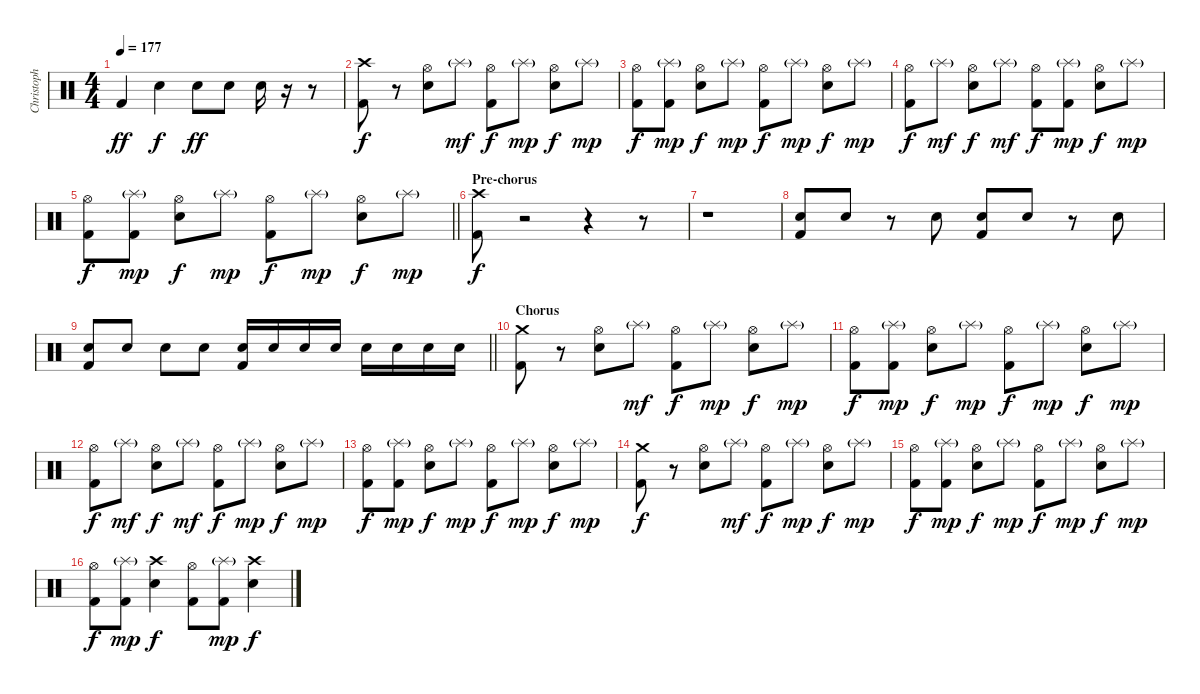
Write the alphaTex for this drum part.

\track ("Christoph Schneider [drums]" "Christoph ") {instrument percussion}
\staff {score}
\articulation defaults
\ts (4 4)
\tempo 177
\clef neutral
\ks c "Kick (hit) 2".4{dy ff} "Snare (hit) 2".4{dy f} "Snare (hit) 2".8{dy ff} "Snare (hit) 2".8 "Snare (hit) 2".16
r.16 r.8 |
("Crash high (hit)" "Kick (hit) 2").8{dy f} r.8 ("Hi-Hat (open)" "Snare (hit) 2").8 "Splash (hit)"{g}.8{dy mf} ("Hi-Hat (open)" "Kick (hit) 2").8{dy f} "Splash (hit)"{g}.8{dy mp} ("Hi-Hat (open)" "Snare (hit) 2").8{dy f} "Splash (hit)"{g}.8{dy mp} |
("Hi-Hat (open)" "Kick (hit) 2").8{dy f} ("Splash (hit)"{g} "Kick (hit) 2").8{dy mp} ("Hi-Hat (open)" "Snare (hit) 2").8{dy f} "Splash (hit)"{g}.8{dy mp} ("Hi-Hat (open)" "Kick (hit) 2").8{dy f} "Splash (hit)"{g}.8{dy mp} ("Hi-Hat (open)" "Snare (hit) 2").8{dy f} "Splash (hit)"{g}.8{dy mp} |
("Hi-Hat (open)" "Kick (hit) 2").8{dy f} "Splash (hit)"{g}.8{dy mf} ("Hi-Hat (open)" "Snare (hit) 2").8{dy f} "Splash (hit)"{g}.8{dy mf} ("Hi-Hat (open)" "Kick (hit) 2").8{dy f} ("Splash (hit)"{g} "Kick (hit) 2").8{dy mp} ("Hi-Hat (open)" "Snare (hit) 2").8{dy f} "Splash (hit)"{g}.8{dy mp} |
\barLineRight lightlight
("Hi-Hat (open)" "Kick (hit) 2").8{dy f} ("Splash (hit)"{g} "Kick (hit) 2").8{dy mp} ("Hi-Hat (open)" "Snare (hit) 2").8{dy f} "Splash (hit)"{g}.8{dy mp} ("Hi-Hat (open)" "Kick (hit) 2").8{dy f} "Splash (hit)"{g}.8{dy mp} ("Hi-Hat (open)" "Snare (hit) 2").8{dy f} "Splash (hit)"{g}.8{dy mp} |
\section ("" "Pre-chorus")
("Crash high (hit)" "Kick (hit) 2").8{dy f} r.2 r.4 r.8 |
r.1 |
("Snare (hit) 2" "Kick (hit) 2").8 "Snare (hit) 2".8 r.8 "Snare (hit) 2".8 ("Snare (hit) 2" "Kick (hit) 2").8 "Snare (hit) 2".8 r.8 "Snare (hit) 2".8 |
\barLineRight lightlight
("Snare (hit) 2" "Kick (hit) 2").8 "Snare (hit) 2".8 "Snare (hit) 2".8 "Snare (hit) 2".8 ("Snare (hit) 2" "Kick (hit) 2").16 "Snare (hit) 2".16 "Snare (hit) 2".16 "Snare (hit) 2".16 "Snare (hit) 2".16 "Snare (hit) 2".16 "Snare (hit) 2".16 "Snare (hit) 2".16 |
\section ("" "Chorus")
("Crash medium (hit)" "Kick (hit) 2").8 r.8 ("Hi-Hat (open)" "Snare (hit) 2").8 "Splash (hit)"{g}.8{dy mf} ("Hi-Hat (open)" "Kick (hit) 2").8{dy f} "Splash (hit)"{g}.8{dy mp} ("Hi-Hat (open)" "Snare (hit) 2").8{dy f} "Splash (hit)"{g}.8{dy mp} |
("Hi-Hat (open)" "Kick (hit) 2").8{dy f} ("Splash (hit)"{g} "Kick (hit) 2").8{dy mp} ("Hi-Hat (open)" "Snare (hit) 2").8{dy f} "Splash (hit)"{g}.8{dy mp} ("Hi-Hat (open)" "Kick (hit) 2").8{dy f} "Splash (hit)"{g}.8{dy mp} ("Hi-Hat (open)" "Snare (hit) 2").8{dy f} "Splash (hit)"{g}.8{dy mp} |
("Hi-Hat (open)" "Kick (hit) 2").8{dy f} "Splash (hit)"{g}.8{dy mf} ("Hi-Hat (open)" "Snare (hit) 2").8{dy f} "Splash (hit)"{g}.8{dy mf} ("Hi-Hat (open)" "Kick (hit) 2").8{dy f} "Splash (hit)"{g}.8{dy mp} ("Hi-Hat (open)" "Snare (hit) 2").8{dy f} "Splash (hit)"{g}.8{dy mp} |
("Hi-Hat (open)" "Kick (hit) 2").8{dy f} ("Splash (hit)"{g} "Kick (hit) 2").8{dy mp} ("Hi-Hat (open)" "Snare (hit) 2").8{dy f} "Splash (hit)"{g}.8{dy mp} ("Hi-Hat (open)" "Kick (hit) 2").8{dy f} "Splash (hit)"{g}.8{dy mp} ("Hi-Hat (open)" "Snare (hit) 2").8{dy f} "Splash (hit)"{g}.8{dy mp} |
("Crash medium (hit)" "Kick (hit) 2").8{dy f} r.8 ("Hi-Hat (open)" "Snare (hit) 2").8 "Splash (hit)"{g}.8{dy mf} ("Hi-Hat (open)" "Kick (hit) 2").8{dy f} "Splash (hit)"{g}.8{dy mp} ("Hi-Hat (open)" "Snare (hit) 2").8{dy f} "Splash (hit)"{g}.8{dy mp} |
("Hi-Hat (open)" "Kick (hit) 2").8{dy f} ("Splash (hit)"{g} "Kick (hit) 2").8{dy mp} ("Hi-Hat (open)" "Snare (hit) 2").8{dy f} "Splash (hit)"{g}.8{dy mp} ("Hi-Hat (open)" "Kick (hit) 2").8{dy f} "Splash (hit)"{g}.8{dy mp} ("Hi-Hat (open)" "Snare (hit) 2").8{dy f} "Splash (hit)"{g}.8{dy mp} |
("Hi-Hat (open)" "Kick (hit) 2").8{dy f} ("Splash (hit)"{g} "Kick (hit) 2").8{dy mp} ("Crash high (hit)" "Snare (hit) 2").4{dy f} ("Hi-Hat (open)" "Kick (hit) 2").8 ("Splash (hit)"{g} "Kick (hit) 2").8{dy mp} ("Crash high (hit)" "Snare (hit) 2").4{dy f}
